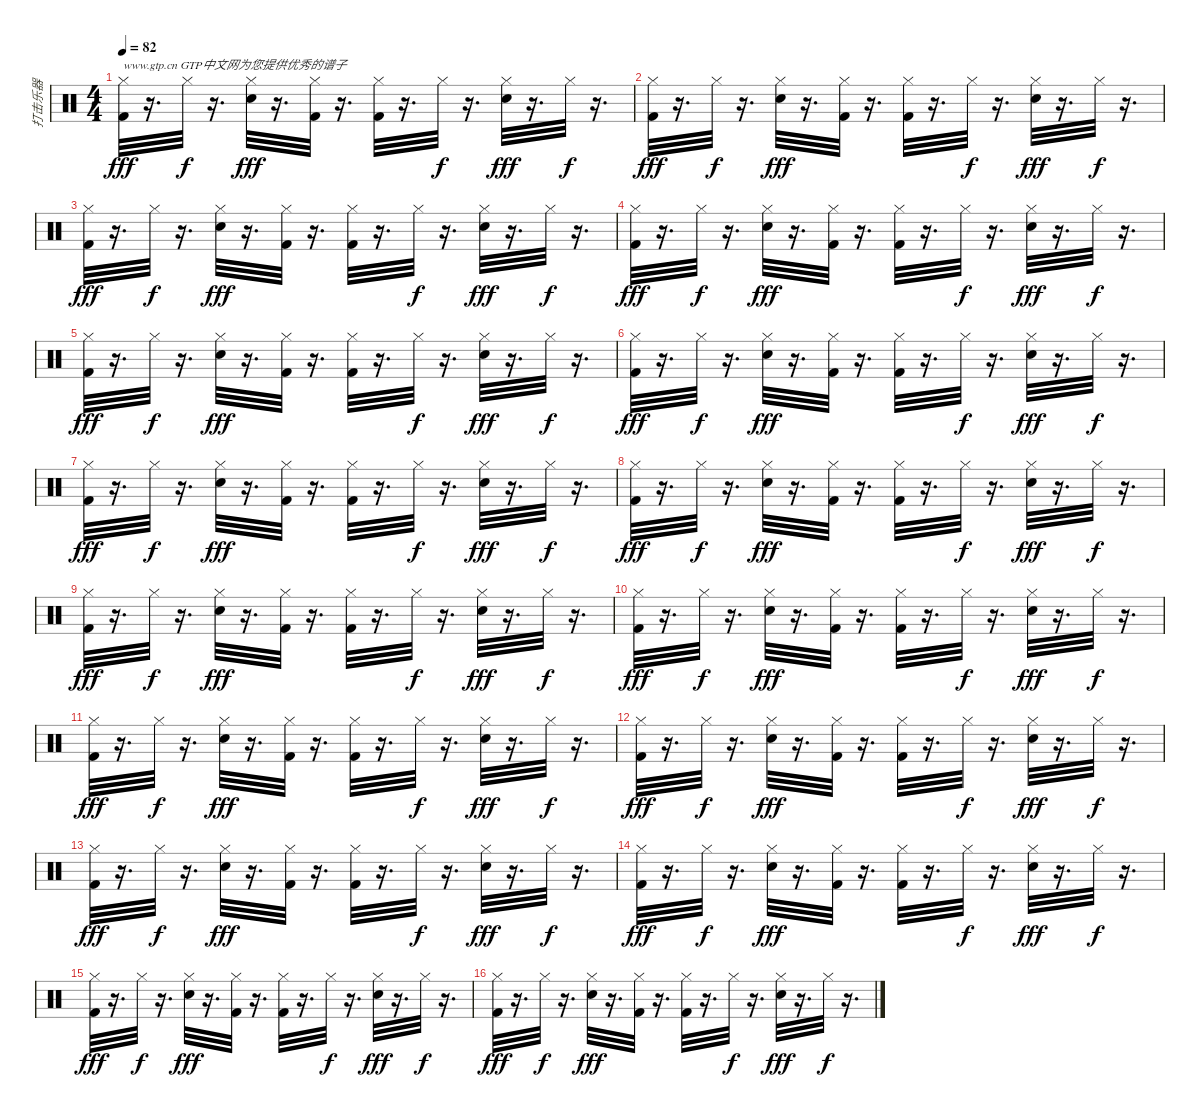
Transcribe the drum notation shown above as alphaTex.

\track ("打击乐器" "打击乐器") {instrument percussion}
\staff {score}
\articulation defaults
\ts (4 4)
\tempo 82
\clef neutral
\ks c
("Kick (hit) 2" "Hi-Hat (closed)").32{txt "www.gtp.cn GTP中文网为您提供优秀的谱子" dy fff} r.16{d} "Hi-Hat (closed)".32{dy f} r.16{d} ("Hi-Hat (closed)" "Electric Snare (hit)").32{dy fff} r.16{d} ("Kick (hit) 2" "Hi-Hat (closed)").32 r.16{d} ("Kick (hit) 2" "Hi-Hat (closed)").32 r.16{d} "Hi-Hat (closed)".32{dy f} r.16{d} ("Hi-Hat (closed)" "Electric Snare (hit)").32{dy fff} r.16{d} "Hi-Hat (closed)".32{dy f} r.16{d} |
("Kick (hit) 2" "Hi-Hat (closed)").32{dy fff} r.16{d} "Hi-Hat (closed)".32{dy f} r.16{d} ("Hi-Hat (closed)" "Electric Snare (hit)").32{dy fff} r.16{d} ("Kick (hit) 2" "Hi-Hat (closed)").32 r.16{d} ("Kick (hit) 2" "Hi-Hat (closed)").32 r.16{d} "Hi-Hat (closed)".32{dy f} r.16{d} ("Hi-Hat (closed)" "Electric Snare (hit)").32{dy fff} r.16{d} "Hi-Hat (closed)".32{dy f} r.16{d} |
("Kick (hit) 2" "Hi-Hat (closed)").32{dy fff} r.16{d} "Hi-Hat (closed)".32{dy f} r.16{d} ("Hi-Hat (closed)" "Electric Snare (hit)").32{dy fff} r.16{d} ("Kick (hit) 2" "Hi-Hat (closed)").32 r.16{d} ("Kick (hit) 2" "Hi-Hat (closed)").32 r.16{d} "Hi-Hat (closed)".32{dy f} r.16{d} ("Hi-Hat (closed)" "Electric Snare (hit)").32{dy fff} r.16{d} "Hi-Hat (closed)".32{dy f} r.16{d} |
("Kick (hit) 2" "Hi-Hat (closed)").32{dy fff} r.16{d} "Hi-Hat (closed)".32{dy f} r.16{d} ("Hi-Hat (closed)" "Electric Snare (hit)").32{dy fff} r.16{d} ("Kick (hit) 2" "Hi-Hat (closed)").32 r.16{d} ("Kick (hit) 2" "Hi-Hat (closed)").32 r.16{d} "Hi-Hat (closed)".32{dy f} r.16{d} ("Hi-Hat (closed)" "Electric Snare (hit)").32{dy fff} r.16{d} "Hi-Hat (closed)".32{dy f} r.16{d} |
("Kick (hit) 2" "Hi-Hat (closed)").32{dy fff} r.16{d} "Hi-Hat (closed)".32{dy f} r.16{d} ("Hi-Hat (closed)" "Electric Snare (hit)").32{dy fff} r.16{d} ("Kick (hit) 2" "Hi-Hat (closed)").32 r.16{d} ("Kick (hit) 2" "Hi-Hat (closed)").32 r.16{d} "Hi-Hat (closed)".32{dy f} r.16{d} ("Hi-Hat (closed)" "Electric Snare (hit)").32{dy fff} r.16{d} "Hi-Hat (closed)".32{dy f} r.16{d} |
("Kick (hit) 2" "Hi-Hat (closed)").32{dy fff} r.16{d} "Hi-Hat (closed)".32{dy f} r.16{d} ("Hi-Hat (closed)" "Electric Snare (hit)").32{dy fff} r.16{d} ("Kick (hit) 2" "Hi-Hat (closed)").32 r.16{d} ("Kick (hit) 2" "Hi-Hat (closed)").32 r.16{d} "Hi-Hat (closed)".32{dy f} r.16{d} ("Hi-Hat (closed)" "Electric Snare (hit)").32{dy fff} r.16{d} "Hi-Hat (closed)".32{dy f} r.16{d} |
("Kick (hit) 2" "Hi-Hat (closed)").32{dy fff} r.16{d} "Hi-Hat (closed)".32{dy f} r.16{d} ("Hi-Hat (closed)" "Electric Snare (hit)").32{dy fff} r.16{d} ("Kick (hit) 2" "Hi-Hat (closed)").32 r.16{d} ("Kick (hit) 2" "Hi-Hat (closed)").32 r.16{d} "Hi-Hat (closed)".32{dy f} r.16{d} ("Hi-Hat (closed)" "Electric Snare (hit)").32{dy fff} r.16{d} "Hi-Hat (closed)".32{dy f} r.16{d} |
("Kick (hit) 2" "Hi-Hat (closed)").32{dy fff} r.16{d} "Hi-Hat (closed)".32{dy f} r.16{d} ("Hi-Hat (closed)" "Electric Snare (hit)").32{dy fff} r.16{d} ("Kick (hit) 2" "Hi-Hat (closed)").32 r.16{d} ("Kick (hit) 2" "Hi-Hat (closed)").32 r.16{d} "Hi-Hat (closed)".32{dy f} r.16{d} ("Hi-Hat (closed)" "Electric Snare (hit)").32{dy fff} r.16{d} "Hi-Hat (closed)".32{dy f} r.16{d} |
("Kick (hit) 2" "Hi-Hat (closed)").32{dy fff} r.16{d} "Hi-Hat (closed)".32{dy f} r.16{d} ("Hi-Hat (closed)" "Electric Snare (hit)").32{dy fff} r.16{d} ("Kick (hit) 2" "Hi-Hat (closed)").32 r.16{d} ("Kick (hit) 2" "Hi-Hat (closed)").32 r.16{d} "Hi-Hat (closed)".32{dy f} r.16{d} ("Hi-Hat (closed)" "Electric Snare (hit)").32{dy fff} r.16{d} "Hi-Hat (closed)".32{dy f} r.16{d} |
("Kick (hit) 2" "Hi-Hat (closed)").32{dy fff} r.16{d} "Hi-Hat (closed)".32{dy f} r.16{d} ("Hi-Hat (closed)" "Electric Snare (hit)").32{dy fff} r.16{d} ("Kick (hit) 2" "Hi-Hat (closed)").32 r.16{d} ("Kick (hit) 2" "Hi-Hat (closed)").32 r.16{d} "Hi-Hat (closed)".32{dy f} r.16{d} ("Hi-Hat (closed)" "Electric Snare (hit)").32{dy fff} r.16{d} "Hi-Hat (closed)".32{dy f} r.16{d} |
("Kick (hit) 2" "Hi-Hat (closed)").32{dy fff} r.16{d} "Hi-Hat (closed)".32{dy f} r.16{d} ("Hi-Hat (closed)" "Electric Snare (hit)").32{dy fff} r.16{d} ("Kick (hit) 2" "Hi-Hat (closed)").32 r.16{d} ("Kick (hit) 2" "Hi-Hat (closed)").32 r.16{d} "Hi-Hat (closed)".32{dy f} r.16{d} ("Hi-Hat (closed)" "Electric Snare (hit)").32{dy fff} r.16{d} "Hi-Hat (closed)".32{dy f} r.16{d} |
("Kick (hit) 2" "Hi-Hat (closed)").32{dy fff} r.16{d} "Hi-Hat (closed)".32{dy f} r.16{d} ("Hi-Hat (closed)" "Electric Snare (hit)").32{dy fff} r.16{d} ("Kick (hit) 2" "Hi-Hat (closed)").32 r.16{d} ("Kick (hit) 2" "Hi-Hat (closed)").32 r.16{d} "Hi-Hat (closed)".32{dy f} r.16{d} ("Hi-Hat (closed)" "Electric Snare (hit)").32{dy fff} r.16{d} "Hi-Hat (closed)".32{dy f} r.16{d} |
("Kick (hit) 2" "Hi-Hat (closed)").32{dy fff} r.16{d} "Hi-Hat (closed)".32{dy f} r.16{d} ("Hi-Hat (closed)" "Electric Snare (hit)").32{dy fff} r.16{d} ("Kick (hit) 2" "Hi-Hat (closed)").32 r.16{d} ("Kick (hit) 2" "Hi-Hat (closed)").32 r.16{d} "Hi-Hat (closed)".32{dy f} r.16{d} ("Hi-Hat (closed)" "Electric Snare (hit)").32{dy fff} r.16{d} "Hi-Hat (closed)".32{dy f} r.16{d} |
("Kick (hit) 2" "Hi-Hat (closed)").32{dy fff} r.16{d} "Hi-Hat (closed)".32{dy f} r.16{d} ("Hi-Hat (closed)" "Electric Snare (hit)").32{dy fff} r.16{d} ("Kick (hit) 2" "Hi-Hat (closed)").32 r.16{d} ("Kick (hit) 2" "Hi-Hat (closed)").32 r.16{d} "Hi-Hat (closed)".32{dy f} r.16{d} ("Hi-Hat (closed)" "Electric Snare (hit)").32{dy fff} r.16{d} "Hi-Hat (closed)".32{dy f} r.16{d} |
("Kick (hit) 2" "Hi-Hat (closed)").32{dy fff} r.16{d} "Hi-Hat (closed)".32{dy f} r.16{d} ("Hi-Hat (closed)" "Electric Snare (hit)").32{dy fff} r.16{d} ("Kick (hit) 2" "Hi-Hat (closed)").32 r.16{d} ("Kick (hit) 2" "Hi-Hat (closed)").32 r.16{d} "Hi-Hat (closed)".32{dy f} r.16{d} ("Hi-Hat (closed)" "Electric Snare (hit)").32{dy fff} r.16{d} "Hi-Hat (closed)".32{dy f} r.16{d} |
("Kick (hit) 2" "Hi-Hat (closed)").32{dy fff} r.16{d} "Hi-Hat (closed)".32{dy f} r.16{d} ("Hi-Hat (closed)" "Electric Snare (hit)").32{dy fff} r.16{d} ("Kick (hit) 2" "Hi-Hat (closed)").32 r.16{d} ("Kick (hit) 2" "Hi-Hat (closed)").32 r.16{d} "Hi-Hat (closed)".32{dy f} r.16{d} ("Hi-Hat (closed)" "Electric Snare (hit)").32{dy fff} r.16{d} "Hi-Hat (closed)".32{dy f} r.16{d}
